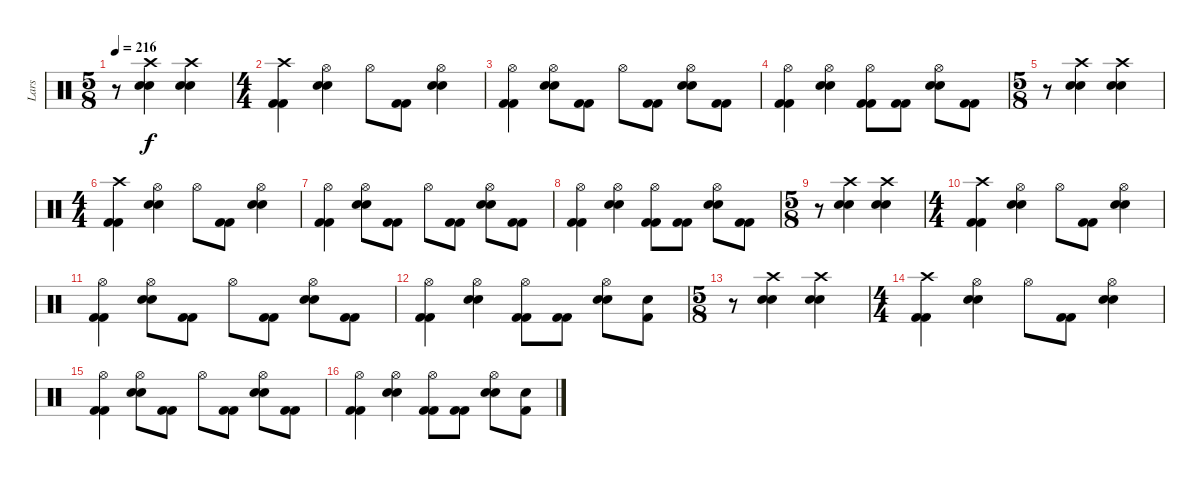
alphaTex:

\track ("Lars" "Lars") {instrument percussion}
\staff {score}
\articulation defaults
\ts (5 8)
\tempo 216
\clef neutral
\ks c
r.8{dy f} ("Crash high (hit)" "Electric Snare (hit)" "Electric Snare (hit)").4 ("Crash high (hit)" "Electric Snare (hit)" "Electric Snare (hit)").4 |
\ts (4 4)
("Crash high (hit)" "Kick (hit) 2" "Kick (hit) 2").4 ("Hi-Hat (open)" "Electric Snare (hit)" "Electric Snare (hit)").4 "Hi-Hat (open)".8 ("Kick (hit) 2" "Kick (hit) 2").8 ("Hi-Hat (open)" "Electric Snare (hit)" "Electric Snare (hit)").4 |
("Hi-Hat (open)" "Kick (hit) 2" "Kick (hit) 2").4 ("Hi-Hat (open)" "Electric Snare (hit)" "Electric Snare (hit)").8 ("Kick (hit) 2" "Kick (hit) 2").8 "Hi-Hat (open)".8 ("Kick (hit) 2" "Kick (hit) 2").8 ("Hi-Hat (open)" "Electric Snare (hit)" "Electric Snare (hit)").8 ("Kick (hit) 2" "Kick (hit) 2").8 |
("Hi-Hat (open)" "Kick (hit) 2" "Kick (hit) 2").4 ("Hi-Hat (open)" "Electric Snare (hit)" "Electric Snare (hit)").4 ("Hi-Hat (open)" "Kick (hit) 2" "Kick (hit) 2").8 ("Kick (hit) 2" "Kick (hit) 2").8 ("Hi-Hat (open)" "Electric Snare (hit)" "Electric Snare (hit)").8 ("Kick (hit) 2" "Kick (hit) 2").8 |
\ts (5 8)
r.8 ("Crash high (hit)" "Electric Snare (hit)" "Electric Snare (hit)").4 ("Crash high (hit)" "Electric Snare (hit)" "Electric Snare (hit)").4 |
\ts (4 4)
("Crash high (hit)" "Kick (hit) 2" "Kick (hit) 2").4 ("Hi-Hat (open)" "Electric Snare (hit)" "Electric Snare (hit)").4 "Hi-Hat (open)".8 ("Kick (hit) 2" "Kick (hit) 2").8 ("Hi-Hat (open)" "Electric Snare (hit)" "Electric Snare (hit)").4 |
("Hi-Hat (open)" "Kick (hit) 2" "Kick (hit) 2").4 ("Hi-Hat (open)" "Electric Snare (hit)" "Electric Snare (hit)").8 ("Kick (hit) 2" "Kick (hit) 2").8 "Hi-Hat (open)".8 ("Kick (hit) 2" "Kick (hit) 2").8 ("Hi-Hat (open)" "Electric Snare (hit)" "Electric Snare (hit)").8 ("Kick (hit) 2" "Kick (hit) 2").8 |
("Hi-Hat (open)" "Kick (hit) 2" "Kick (hit) 2").4 ("Hi-Hat (open)" "Electric Snare (hit)" "Electric Snare (hit)").4 ("Hi-Hat (open)" "Kick (hit) 2" "Kick (hit) 2").8 ("Kick (hit) 2" "Kick (hit) 2").8 ("Hi-Hat (open)" "Electric Snare (hit)" "Electric Snare (hit)").8 ("Kick (hit) 2" "Kick (hit) 2").8 |
\ts (5 8)
r.8 ("Crash high (hit)" "Electric Snare (hit)" "Electric Snare (hit)").4 ("Crash high (hit)" "Electric Snare (hit)" "Electric Snare (hit)").4 |
\ts (4 4)
("Crash high (hit)" "Kick (hit) 2" "Kick (hit) 2").4 ("Hi-Hat (open)" "Electric Snare (hit)" "Electric Snare (hit)").4 "Hi-Hat (open)".8 ("Kick (hit) 2" "Kick (hit) 2").8 ("Hi-Hat (open)" "Electric Snare (hit)" "Electric Snare (hit)").4 |
("Hi-Hat (open)" "Kick (hit) 2" "Kick (hit) 2").4 ("Hi-Hat (open)" "Electric Snare (hit)" "Electric Snare (hit)").8 ("Kick (hit) 2" "Kick (hit) 2").8 "Hi-Hat (open)".8 ("Kick (hit) 2" "Kick (hit) 2").8 ("Hi-Hat (open)" "Electric Snare (hit)" "Electric Snare (hit)").8 ("Kick (hit) 2" "Kick (hit) 2").8 |
("Hi-Hat (open)" "Kick (hit) 2" "Kick (hit) 2").4 ("Hi-Hat (open)" "Electric Snare (hit)" "Electric Snare (hit)").4 ("Hi-Hat (open)" "Kick (hit) 2" "Kick (hit) 2").8 ("Kick (hit) 2" "Kick (hit) 2").8 ("Hi-Hat (open)" "Electric Snare (hit)" "Electric Snare (hit)").8 ("Kick (hit) 2" "Snare (hit)").8 |
\ts (5 8)
r.8 ("Crash high (hit)" "Electric Snare (hit)" "Electric Snare (hit)").4 ("Crash high (hit)" "Electric Snare (hit)" "Electric Snare (hit)").4 |
\ts (4 4)
("Crash high (hit)" "Kick (hit) 2" "Kick (hit) 2").4 ("Hi-Hat (open)" "Electric Snare (hit)" "Electric Snare (hit)").4 "Hi-Hat (open)".8 ("Kick (hit) 2" "Kick (hit) 2").8 ("Hi-Hat (open)" "Electric Snare (hit)" "Electric Snare (hit)").4 |
("Hi-Hat (open)" "Kick (hit) 2" "Kick (hit) 2").4 ("Hi-Hat (open)" "Electric Snare (hit)" "Electric Snare (hit)").8 ("Kick (hit) 2" "Kick (hit) 2").8 "Hi-Hat (open)".8 ("Kick (hit) 2" "Kick (hit) 2").8 ("Hi-Hat (open)" "Electric Snare (hit)" "Electric Snare (hit)").8 ("Kick (hit) 2" "Kick (hit) 2").8 |
("Hi-Hat (open)" "Kick (hit) 2" "Kick (hit) 2").4 ("Hi-Hat (open)" "Electric Snare (hit)" "Electric Snare (hit)").4 ("Hi-Hat (open)" "Kick (hit) 2" "Kick (hit) 2").8 ("Kick (hit) 2" "Kick (hit) 2").8 ("Hi-Hat (open)" "Electric Snare (hit)" "Electric Snare (hit)").8 ("Kick (hit) 2" "Snare (hit)").8
